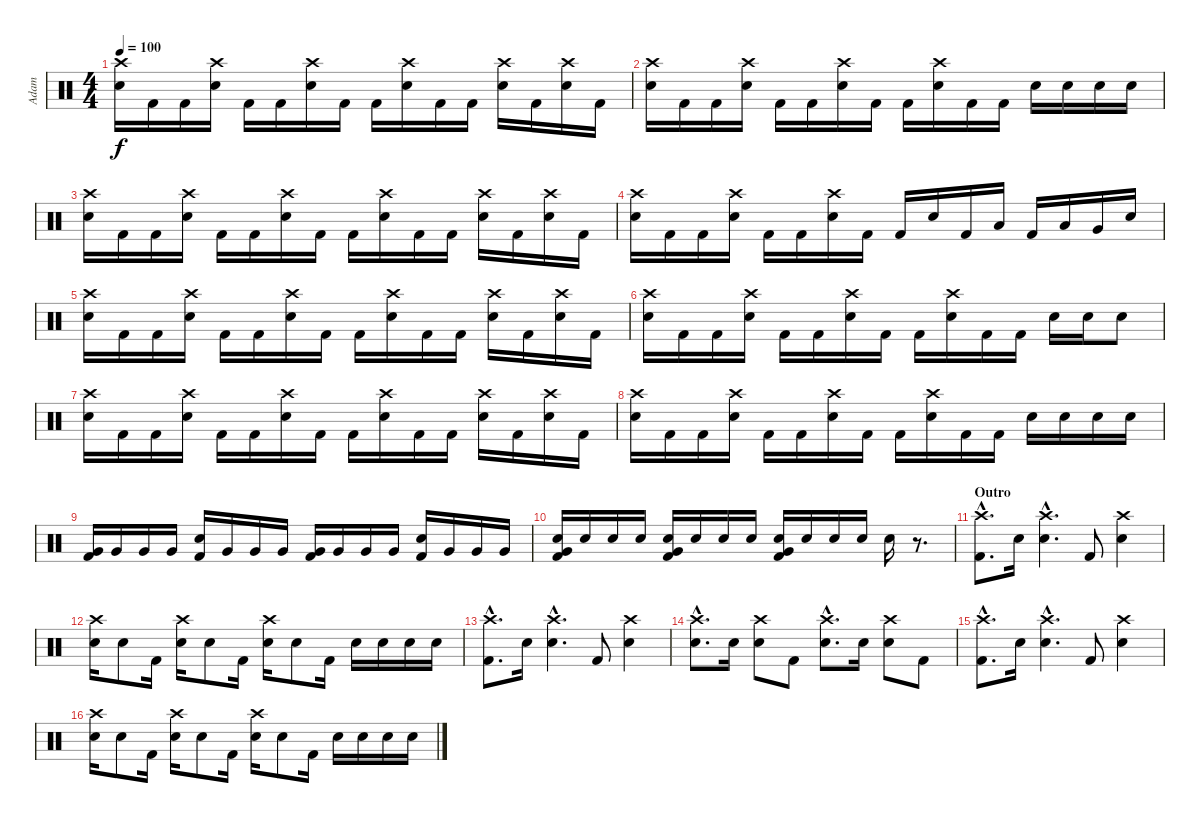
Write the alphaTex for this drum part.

\track ("Adam" "Adam") {instrument percussion}
\staff {score}
\articulation defaults
\ts (4 4)
\tempo 100
\clef neutral
\ks c
("Crash high (hit)" "Electric Snare (hit)").16{dy f} "Kick (hit) 2".16 "Kick (hit) 2".16 ("Crash high (hit)" "Electric Snare (hit)").16 "Kick (hit) 2".16 "Kick (hit) 2".16 ("Crash high (hit)" "Electric Snare (hit)").16 "Kick (hit) 2".16 "Kick (hit) 2".16 ("Crash high (hit)" "Electric Snare (hit)").16 "Kick (hit) 2".16 "Kick (hit) 2".16 ("Crash high (hit)" "Electric Snare (hit)").16 "Kick (hit) 2".16 ("Crash high (hit)" "Electric Snare (hit)").16 "Kick (hit) 2".16 |
("Crash high (hit)" "Electric Snare (hit)").16 "Kick (hit) 2".16 "Kick (hit) 2".16 ("Crash high (hit)" "Electric Snare (hit)").16 "Kick (hit) 2".16 "Kick (hit) 2".16 ("Crash high (hit)" "Electric Snare (hit)").16 "Kick (hit) 2".16 "Kick (hit) 2".16 ("Crash high (hit)" "Electric Snare (hit)").16 "Kick (hit) 2".16 "Kick (hit) 2".16 "Electric Snare (hit)".16 "Electric Snare (hit)".16 "Electric Snare (hit)".16 "Electric Snare (hit)".16 |
("Crash high (hit)" "Electric Snare (hit)").16 "Kick (hit) 2".16 "Kick (hit) 2".16 ("Crash high (hit)" "Electric Snare (hit)").16 "Kick (hit) 2".16 "Kick (hit) 2".16 ("Crash high (hit)" "Electric Snare (hit)").16 "Kick (hit) 2".16 "Kick (hit) 2".16 ("Crash high (hit)" "Electric Snare (hit)").16 "Kick (hit) 2".16 "Kick (hit) 2".16 ("Crash high (hit)" "Electric Snare (hit)").16 "Kick (hit) 2".16 ("Crash high (hit)" "Electric Snare (hit)").16 "Kick (hit) 2".16 |
("Crash high (hit)" "Electric Snare (hit)").16 "Kick (hit) 2".16 "Kick (hit) 2".16 ("Crash high (hit)" "Electric Snare (hit)").16 "Kick (hit) 2".16 "Kick (hit) 2".16 ("Crash high (hit)" "Electric Snare (hit)").16 "Kick (hit) 2".16 "Kick (hit) 2".16 "Electric Snare (hit)".16 "Kick (hit) 2".16 "Low Tom (hit)".16 "Kick (hit) 2".16 "Low Tom (hit)".16 "Very Low Tom (hit)".16 "Electric Snare (hit)".16 |
("Crash high (hit)" "Electric Snare (hit)").16 "Kick (hit) 2".16 "Kick (hit) 2".16 ("Crash high (hit)" "Electric Snare (hit)").16 "Kick (hit) 2".16 "Kick (hit) 2".16 ("Crash high (hit)" "Electric Snare (hit)").16 "Kick (hit) 2".16 "Kick (hit) 2".16 ("Crash high (hit)" "Electric Snare (hit)").16 "Kick (hit) 2".16 "Kick (hit) 2".16 ("Crash high (hit)" "Electric Snare (hit)").16 "Kick (hit) 2".16 ("Crash high (hit)" "Electric Snare (hit)").16 "Kick (hit) 2".16 |
("Crash high (hit)" "Electric Snare (hit)").16 "Kick (hit) 2".16 "Kick (hit) 2".16 ("Crash high (hit)" "Electric Snare (hit)").16 "Kick (hit) 2".16 "Kick (hit) 2".16 ("Crash high (hit)" "Electric Snare (hit)").16 "Kick (hit) 2".16 "Kick (hit) 2".16 ("Crash high (hit)" "Electric Snare (hit)").16 "Kick (hit) 2".16 "Kick (hit) 2".16 "Electric Snare (hit)".16 "Electric Snare (hit)".16 "Electric Snare (hit)".8 |
("Crash high (hit)" "Electric Snare (hit)").16 "Kick (hit) 2".16 "Kick (hit) 2".16 ("Crash high (hit)" "Electric Snare (hit)").16 "Kick (hit) 2".16 "Kick (hit) 2".16 ("Crash high (hit)" "Electric Snare (hit)").16 "Kick (hit) 2".16 "Kick (hit) 2".16 ("Crash high (hit)" "Electric Snare (hit)").16 "Kick (hit) 2".16 "Kick (hit) 2".16 ("Crash high (hit)" "Electric Snare (hit)").16 "Kick (hit) 2".16 ("Crash high (hit)" "Electric Snare (hit)").16 "Kick (hit) 2".16 |
("Crash high (hit)" "Electric Snare (hit)").16 "Kick (hit) 2".16 "Kick (hit) 2".16 ("Crash high (hit)" "Electric Snare (hit)").16 "Kick (hit) 2".16 "Kick (hit) 2".16 ("Crash high (hit)" "Electric Snare (hit)").16 "Kick (hit) 2".16 "Kick (hit) 2".16 ("Crash high (hit)" "Electric Snare (hit)").16 "Kick (hit) 2".16 "Kick (hit) 2".16 "Electric Snare (hit)".16 "Electric Snare (hit)".16 "Electric Snare (hit)".16 "Electric Snare (hit)".16 |
("Very Low Tom (hit)" "Kick (hit) 2").16 "Very Low Tom (hit)".16 "Very Low Tom (hit)".16 "Very Low Tom (hit)".16 ("Electric Snare (hit)" "Kick (hit) 2").16 "Very Low Tom (hit)".16 "Very Low Tom (hit)".16 "Very Low Tom (hit)".16 ("Very Low Tom (hit)" "Kick (hit) 2").16 "Very Low Tom (hit)".16 "Very Low Tom (hit)".16 "Very Low Tom (hit)".16 ("Electric Snare (hit)" "Kick (hit) 2").16 "Very Low Tom (hit)".16 "Very Low Tom (hit)".16 "Very Low Tom (hit)".16 |
("Very Low Tom (hit)" "Electric Snare (hit)" "Kick (hit) 2").16 "Electric Snare (hit)".16 "Electric Snare (hit)".16 "Electric Snare (hit)".16 ("Very Low Tom (hit)" "Electric Snare (hit)" "Kick (hit) 2").16 "Electric Snare (hit)".16 "Electric Snare (hit)".16 "Electric Snare (hit)".16 ("Very Low Tom (hit)" "Electric Snare (hit)" "Kick (hit) 2").16 "Electric Snare (hit)".16 "Electric Snare (hit)".16 "Electric Snare (hit)".16 "Electric Snare (hit)".16 r.8{d} |
\section ("" "Outro")
("Crash high (hit)"{hac} "Kick (hit) 2"{hac}).8{d} "Electric Snare (hit)".16 ("Crash high (hit)"{hac} "Electric Snare (hit)"{hac}).4{d} "Kick (hit) 2".8 ("Crash high (hit)" "Electric Snare (hit)").4 |
("Crash high (hit)" "Electric Snare (hit)").16 "Electric Snare (hit)".8 "Kick (hit) 2".16 ("Crash high (hit)" "Electric Snare (hit)").16 "Electric Snare (hit)".8 "Kick (hit) 2".16 ("Crash high (hit)" "Electric Snare (hit)").16 "Electric Snare (hit)".8 "Kick (hit) 2".16 "Electric Snare (hit)".16 "Electric Snare (hit)".16 "Electric Snare (hit)".16 "Electric Snare (hit)".16 |
("Crash high (hit)"{hac} "Kick (hit) 2"{hac}).8{d} "Electric Snare (hit)".16 ("Crash high (hit)"{hac} "Electric Snare (hit)"{hac}).4{d} "Kick (hit) 2".8 ("Crash high (hit)" "Electric Snare (hit)").4 |
("Crash high (hit)"{hac} "Electric Snare (hit)"{hac}).8{d} "Electric Snare (hit)".16 ("Crash high (hit)" "Electric Snare (hit)").8 "Kick (hit) 2".8 ("Crash high (hit)"{hac} "Electric Snare (hit)"{hac}).8{d} "Electric Snare (hit)".16 ("Crash high (hit)" "Electric Snare (hit)").8 "Kick (hit) 2".8 |
("Crash high (hit)"{hac} "Kick (hit) 2"{hac}).8{d} "Electric Snare (hit)".16 ("Crash high (hit)"{hac} "Electric Snare (hit)"{hac}).4{d} "Kick (hit) 2".8 ("Crash high (hit)" "Electric Snare (hit)").4 |
("Crash high (hit)" "Electric Snare (hit)").16 "Electric Snare (hit)".8 "Kick (hit) 2".16 ("Crash high (hit)" "Electric Snare (hit)").16 "Electric Snare (hit)".8 "Kick (hit) 2".16 ("Crash high (hit)" "Electric Snare (hit)").16 "Electric Snare (hit)".8 "Kick (hit) 2".16 "Electric Snare (hit)".16 "Electric Snare (hit)".16 "Electric Snare (hit)".16 "Electric Snare (hit)".16
